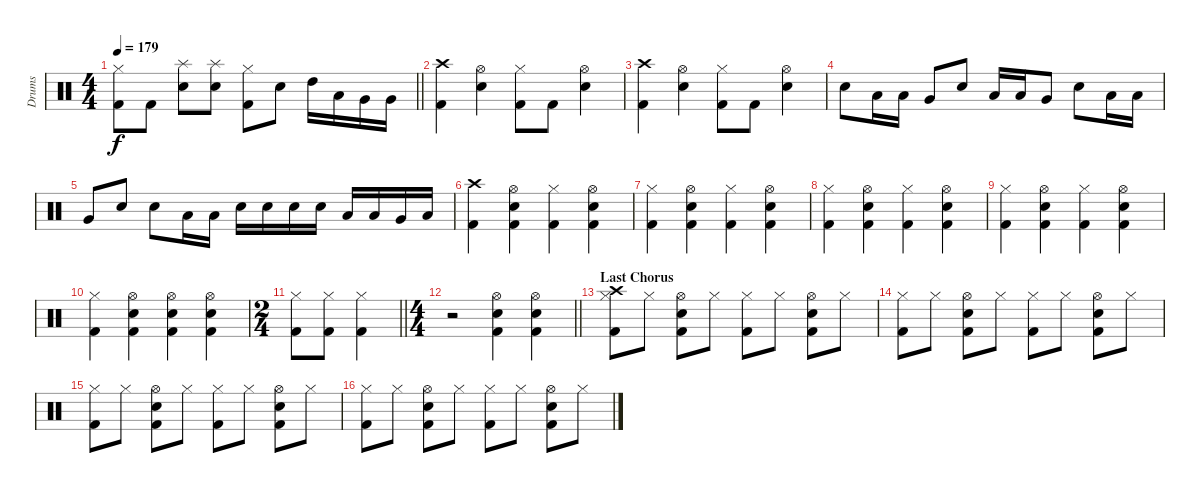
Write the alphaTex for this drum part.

\track ("Drums" "Drums") {instrument percussion}
\staff {score}
\articulation defaults
\ts (4 4)
\tempo 179
\clef neutral
\barLineRight lightlight
\ks c
("Hi-Hat (closed)" "Kick (hit) 2").8{dy f} "Kick (hit) 2".8 ("Splash (hit)" "Snare (hit) 2").8 ("Splash (hit)" "Snare (hit) 2").8 ("Hi-Hat (closed)" "Kick (hit) 2").8 "Snare (hit) 2".8 "High Tom (hit)".16 "Low Tom (hit)".16 "Very Low Tom (hit)".16 "Very Low Tom (hit)".16 |
("Crash high (hit)" "Kick (hit) 2").4 ("Hi-Hat (open)" "Snare (hit) 2").4 ("Hi-Hat (closed)" "Kick (hit) 2").8 "Kick (hit) 2".8 ("Hi-Hat (open)" "Snare (hit) 2").4 |
("Crash high (hit)" "Kick (hit) 2").4 ("Hi-Hat (open)" "Snare (hit) 2").4 ("Hi-Hat (closed)" "Kick (hit) 2").8 "Kick (hit) 2".8 ("Hi-Hat (open)" "Snare (hit) 2").4 |
"Snare (hit) 2".8 "Low Tom (hit)".16 "Low Tom (hit)".16 "Very Low Tom (hit)".8 "Snare (hit) 2".8 "Low Tom (hit)".16 "Low Tom (hit)".16 "Very Low Tom (hit)".8 "Snare (hit) 2".8 "Low Tom (hit)".16 "Low Tom (hit)".16 |
"Very Low Tom (hit)".8 "Snare (hit) 2".8 "Snare (hit) 2".8 "Low Tom (hit)".16 "Low Tom (hit)".16 "Snare (hit) 2".16 "Snare (hit) 2".16 "Snare (hit) 2".16 "Snare (hit) 2".16 "Low Tom (hit)".16 "Low Tom (hit)".16 "Very Low Tom (hit)".16 "Low Floor Tom (hit)".16 |
("Crash high (hit)" "Kick (hit) 2").4 ("Hi-Hat (open)" "Snare (hit) 2" "Kick (hit) 2").4 ("Hi-Hat (closed)" "Kick (hit) 2").4 ("Hi-Hat (open)" "Snare (hit) 2" "Kick (hit) 2").4 |
("Hi-Hat (closed)" "Kick (hit) 2").4 ("Hi-Hat (open)" "Snare (hit) 2" "Kick (hit) 2").4 ("Hi-Hat (closed)" "Kick (hit) 2").4 ("Hi-Hat (open)" "Snare (hit) 2" "Kick (hit) 2").4 |
("Hi-Hat (closed)" "Kick (hit) 2").4 ("Hi-Hat (open)" "Snare (hit) 2" "Kick (hit) 2").4 ("Hi-Hat (closed)" "Kick (hit) 2").4 ("Hi-Hat (open)" "Snare (hit) 2" "Kick (hit) 2").4 |
("Hi-Hat (closed)" "Kick (hit) 2").4 ("Hi-Hat (open)" "Snare (hit) 2" "Kick (hit) 2").4 ("Hi-Hat (closed)" "Kick (hit) 2").4 ("Hi-Hat (open)" "Snare (hit) 2" "Kick (hit) 2").4 |
("Hi-Hat (closed)" "Kick (hit) 2").4 ("Hi-Hat (open)" "Snare (hit) 2" "Kick (hit) 2").4 ("Hi-Hat (open)" "Snare (hit) 2" "Kick (hit) 2").4 ("Hi-Hat (open)" "Snare (hit) 2" "Kick (hit) 2").4 |
\ts (2 4)
\barLineRight lightlight
("Hi-Hat (closed)" "Kick (hit) 2").8 ("Hi-Hat (closed)" "Kick (hit) 2").8 ("Hi-Hat (closed)" "Kick (hit) 2").4 |
\ts (4 4)
\barLineRight lightlight
r.2 ("Hi-Hat (open)" "Snare (hit) 2" "Kick (hit) 2").4 ("Hi-Hat (open)" "Snare (hit) 2" "Kick (hit) 2").4 |
\section ("" "Last Chorus")
("Hi-Hat (closed)" "Crash high (hit)" "Kick (hit) 2").8 "Hi-Hat (closed)".8 ("Hi-Hat (open)" "Snare (hit) 2" "Kick (hit) 2").8 "Hi-Hat (closed)".8 ("Hi-Hat (closed)" "Kick (hit) 2").8 "Hi-Hat (closed)".8 ("Hi-Hat (open)" "Snare (hit) 2" "Kick (hit) 2").8 "Hi-Hat (closed)".8 |
("Hi-Hat (closed)" "Kick (hit) 2").8 "Hi-Hat (closed)".8 ("Hi-Hat (open)" "Snare (hit) 2" "Kick (hit) 2").8 "Hi-Hat (closed)".8 ("Hi-Hat (closed)" "Kick (hit) 2").8 "Hi-Hat (closed)".8 ("Hi-Hat (open)" "Snare (hit) 2" "Kick (hit) 2").8 "Hi-Hat (closed)".8 |
("Hi-Hat (closed)" "Kick (hit) 2").8 "Hi-Hat (closed)".8 ("Hi-Hat (open)" "Snare (hit) 2" "Kick (hit) 2").8 "Hi-Hat (closed)".8 ("Hi-Hat (closed)" "Kick (hit) 2").8 "Hi-Hat (closed)".8 ("Hi-Hat (open)" "Snare (hit) 2" "Kick (hit) 2").8 "Hi-Hat (closed)".8 |
("Hi-Hat (closed)" "Kick (hit) 2").8 "Hi-Hat (closed)".8 ("Hi-Hat (open)" "Snare (hit) 2" "Kick (hit) 2").8 "Hi-Hat (closed)".8 ("Hi-Hat (closed)" "Kick (hit) 2").8 "Hi-Hat (closed)".8 ("Hi-Hat (open)" "Snare (hit) 2" "Kick (hit) 2").8 "Hi-Hat (closed)".8
